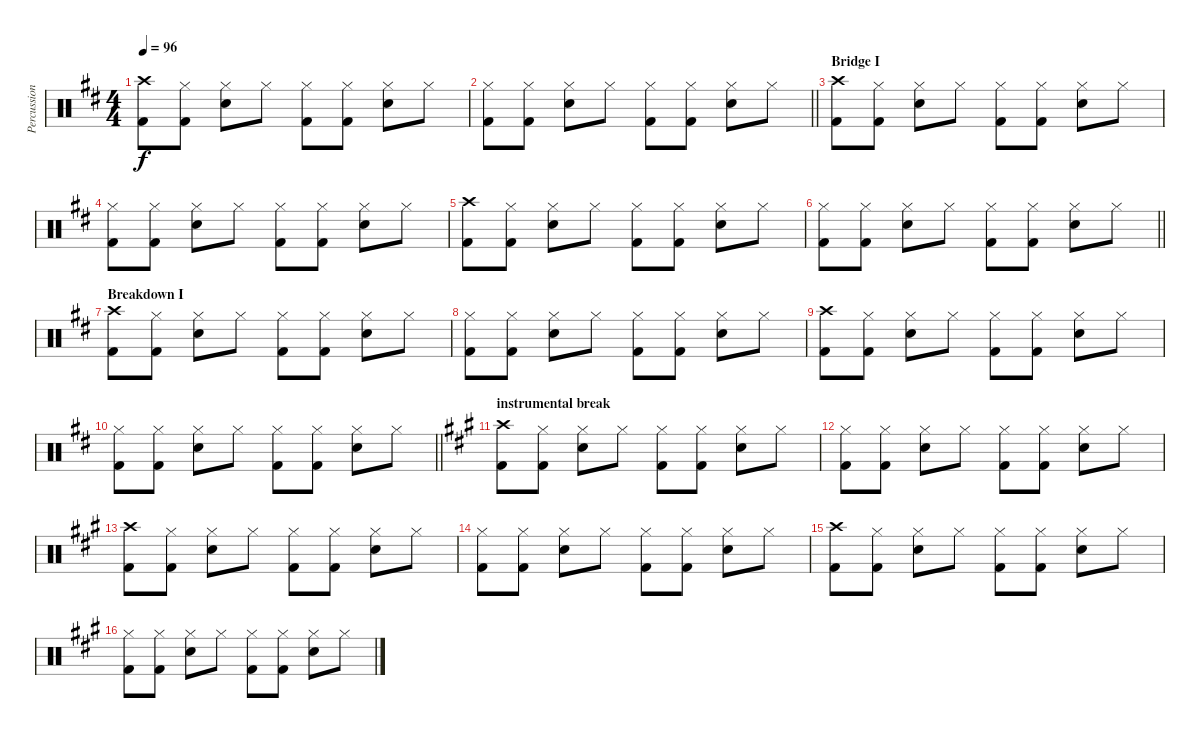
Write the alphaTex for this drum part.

\track ("Percussions" "Percussion") {instrument percussion}
\staff {score}
\articulation defaults
\ts (4 4)
\tempo 96
\clef neutral
\ks d
("Crash high (hit)" "Kick (hit) 2").8{dy f} ("Hi-Hat (closed)" "Kick (hit) 2").8 ("Hi-Hat (closed)" "Snare (hit) 2").8 "Hi-Hat (closed)".8 ("Hi-Hat (closed)" "Kick (hit) 2").8 ("Hi-Hat (closed)" "Kick (hit) 2").8 ("Hi-Hat (closed)" "Snare (hit) 2").8 "Hi-Hat (closed)".8 |
\barLineRight lightlight
("Hi-Hat (closed)" "Kick (hit) 2").8 ("Hi-Hat (closed)" "Kick (hit) 2").8 ("Hi-Hat (closed)" "Snare (hit) 2").8 "Hi-Hat (closed)".8 ("Hi-Hat (closed)" "Kick (hit) 2").8 ("Hi-Hat (closed)" "Kick (hit) 2").8 ("Hi-Hat (closed)" "Snare (hit) 2").8 "Hi-Hat (closed)".8 |
\section ("" "Bridge I")
("Crash high (hit)" "Kick (hit) 2").8 ("Hi-Hat (closed)" "Kick (hit) 2").8 ("Hi-Hat (closed)" "Snare (hit) 2").8 "Hi-Hat (closed)".8 ("Hi-Hat (closed)" "Kick (hit) 2").8 ("Hi-Hat (closed)" "Kick (hit) 2").8 ("Hi-Hat (closed)" "Snare (hit) 2").8 "Hi-Hat (closed)".8 |
("Hi-Hat (closed)" "Kick (hit) 2").8 ("Hi-Hat (closed)" "Kick (hit) 2").8 ("Hi-Hat (closed)" "Snare (hit) 2").8 "Hi-Hat (closed)".8 ("Hi-Hat (closed)" "Kick (hit) 2").8 ("Hi-Hat (closed)" "Kick (hit) 2").8 ("Hi-Hat (closed)" "Snare (hit) 2").8 "Hi-Hat (closed)".8 |
("Crash high (hit)" "Kick (hit) 2").8 ("Hi-Hat (closed)" "Kick (hit) 2").8 ("Hi-Hat (closed)" "Snare (hit) 2").8 "Hi-Hat (closed)".8 ("Hi-Hat (closed)" "Kick (hit) 2").8 ("Hi-Hat (closed)" "Kick (hit) 2").8 ("Hi-Hat (closed)" "Snare (hit) 2").8 "Hi-Hat (closed)".8 |
\barLineRight lightlight
("Hi-Hat (closed)" "Kick (hit) 2").8 ("Hi-Hat (closed)" "Kick (hit) 2").8 ("Hi-Hat (closed)" "Snare (hit) 2").8 "Hi-Hat (closed)".8 ("Hi-Hat (closed)" "Kick (hit) 2").8 ("Hi-Hat (closed)" "Kick (hit) 2").8 ("Hi-Hat (closed)" "Snare (hit) 2").8 "Hi-Hat (closed)".8 |
\section ("" "Breakdown I")
("Crash high (hit)" "Kick (hit) 2").8 ("Hi-Hat (closed)" "Kick (hit) 2").8 ("Hi-Hat (closed)" "Snare (hit) 2").8 "Hi-Hat (closed)".8 ("Hi-Hat (closed)" "Kick (hit) 2").8 ("Hi-Hat (closed)" "Kick (hit) 2").8 ("Hi-Hat (closed)" "Snare (hit) 2").8 "Hi-Hat (closed)".8 |
("Hi-Hat (closed)" "Kick (hit) 2").8 ("Hi-Hat (closed)" "Kick (hit) 2").8 ("Hi-Hat (closed)" "Snare (hit) 2").8 "Hi-Hat (closed)".8 ("Hi-Hat (closed)" "Kick (hit) 2").8 ("Hi-Hat (closed)" "Kick (hit) 2").8 ("Hi-Hat (closed)" "Snare (hit) 2").8 "Hi-Hat (closed)".8 |
("Crash high (hit)" "Kick (hit) 2").8 ("Hi-Hat (closed)" "Kick (hit) 2").8 ("Hi-Hat (closed)" "Snare (hit) 2").8 "Hi-Hat (closed)".8 ("Hi-Hat (closed)" "Kick (hit) 2").8 ("Hi-Hat (closed)" "Kick (hit) 2").8 ("Hi-Hat (closed)" "Snare (hit) 2").8 "Hi-Hat (closed)".8 |
\barLineRight lightlight
("Hi-Hat (closed)" "Kick (hit) 2").8 ("Hi-Hat (closed)" "Kick (hit) 2").8 ("Hi-Hat (closed)" "Snare (hit) 2").8 "Hi-Hat (closed)".8 ("Hi-Hat (closed)" "Kick (hit) 2").8 ("Hi-Hat (closed)" "Kick (hit) 2").8 ("Hi-Hat (closed)" "Snare (hit) 2").8 "Hi-Hat (closed)".8 |
\section ("" "instrumental break")
\ks a
("Crash high (hit)" "Kick (hit) 2").8 ("Hi-Hat (closed)" "Kick (hit) 2").8 ("Hi-Hat (closed)" "Snare (hit) 2").8 "Hi-Hat (closed)".8 ("Hi-Hat (closed)" "Kick (hit) 2").8 ("Hi-Hat (closed)" "Kick (hit) 2").8 ("Hi-Hat (closed)" "Snare (hit) 2").8 "Hi-Hat (closed)".8 |
("Hi-Hat (closed)" "Kick (hit) 2").8 ("Hi-Hat (closed)" "Kick (hit) 2").8 ("Hi-Hat (closed)" "Snare (hit) 2").8 "Hi-Hat (closed)".8 ("Hi-Hat (closed)" "Kick (hit) 2").8 ("Hi-Hat (closed)" "Kick (hit) 2").8 ("Hi-Hat (closed)" "Snare (hit) 2").8 "Hi-Hat (closed)".8 |
("Crash high (hit)" "Kick (hit) 2").8 ("Hi-Hat (closed)" "Kick (hit) 2").8 ("Hi-Hat (closed)" "Snare (hit) 2").8 "Hi-Hat (closed)".8 ("Hi-Hat (closed)" "Kick (hit) 2").8 ("Hi-Hat (closed)" "Kick (hit) 2").8 ("Hi-Hat (closed)" "Snare (hit) 2").8 "Hi-Hat (closed)".8 |
("Hi-Hat (closed)" "Kick (hit) 2").8 ("Hi-Hat (closed)" "Kick (hit) 2").8 ("Hi-Hat (closed)" "Snare (hit) 2").8 "Hi-Hat (closed)".8 ("Hi-Hat (closed)" "Kick (hit) 2").8 ("Hi-Hat (closed)" "Kick (hit) 2").8 ("Hi-Hat (closed)" "Snare (hit) 2").8 "Hi-Hat (closed)".8 |
("Crash high (hit)" "Kick (hit) 2").8 ("Hi-Hat (closed)" "Kick (hit) 2").8 ("Hi-Hat (closed)" "Snare (hit) 2").8 "Hi-Hat (closed)".8 ("Hi-Hat (closed)" "Kick (hit) 2").8 ("Hi-Hat (closed)" "Kick (hit) 2").8 ("Hi-Hat (closed)" "Snare (hit) 2").8 "Hi-Hat (closed)".8 |
("Hi-Hat (closed)" "Kick (hit) 2").8 ("Hi-Hat (closed)" "Kick (hit) 2").8 ("Hi-Hat (closed)" "Snare (hit) 2").8 "Hi-Hat (closed)".8 ("Hi-Hat (closed)" "Kick (hit) 2").8 ("Hi-Hat (closed)" "Kick (hit) 2").8 ("Hi-Hat (closed)" "Snare (hit) 2").8 "Hi-Hat (closed)".8
